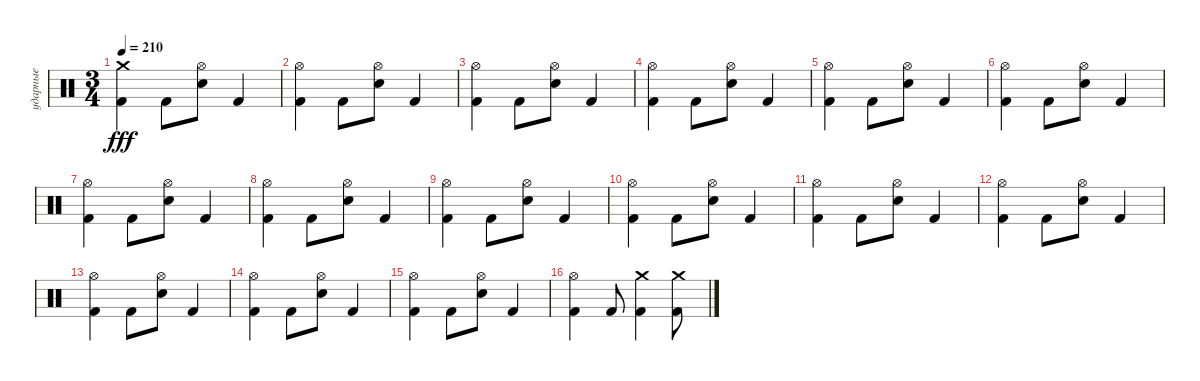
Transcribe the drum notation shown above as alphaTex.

\track ("ударные" "ударные") {instrument percussion}
\staff {score}
\articulation defaults
\ts (3 4)
\tempo 210
\clef neutral
\ks c
("Crash medium (hit)" "Kick (hit) 2").4{dy fff} "Kick (hit) 2".8 ("Hi-Hat (open)" "Snare (hit) 2").8 "Kick (hit) 2".4 |
("Hi-Hat (open)" "Kick (hit) 2").4 "Kick (hit) 2".8 ("Hi-Hat (open)" "Snare (hit) 2").8 "Kick (hit) 2".4 |
("Hi-Hat (open)" "Kick (hit) 2").4 "Kick (hit) 2".8 ("Hi-Hat (open)" "Snare (hit) 2").8 "Kick (hit) 2".4 |
("Hi-Hat (open)" "Kick (hit) 2").4 "Kick (hit) 2".8 ("Hi-Hat (open)" "Snare (hit) 2").8 "Kick (hit) 2".4 |
("Hi-Hat (open)" "Kick (hit) 2").4 "Kick (hit) 2".8 ("Hi-Hat (open)" "Snare (hit) 2").8 "Kick (hit) 2".4 |
("Hi-Hat (open)" "Kick (hit) 2").4 "Kick (hit) 2".8 ("Hi-Hat (open)" "Snare (hit) 2").8 "Kick (hit) 2".4 |
("Hi-Hat (open)" "Kick (hit) 2").4 "Kick (hit) 2".8 ("Hi-Hat (open)" "Snare (hit) 2").8 "Kick (hit) 2".4 |
("Hi-Hat (open)" "Kick (hit) 2").4 "Kick (hit) 2".8 ("Hi-Hat (open)" "Snare (hit) 2").8 "Kick (hit) 2".4 |
("Hi-Hat (open)" "Kick (hit) 2").4 "Kick (hit) 2".8 ("Hi-Hat (open)" "Snare (hit) 2").8 "Kick (hit) 2".4 |
("Hi-Hat (open)" "Kick (hit) 2").4 "Kick (hit) 2".8 ("Hi-Hat (open)" "Snare (hit) 2").8 "Kick (hit) 2".4 |
("Hi-Hat (open)" "Kick (hit) 2").4 "Kick (hit) 2".8 ("Hi-Hat (open)" "Snare (hit) 2").8 "Kick (hit) 2".4 |
("Hi-Hat (open)" "Kick (hit) 2").4 "Kick (hit) 2".8 ("Hi-Hat (open)" "Snare (hit) 2").8 "Kick (hit) 2".4 |
("Hi-Hat (open)" "Kick (hit) 2").4 "Kick (hit) 2".8 ("Hi-Hat (open)" "Snare (hit) 2").8 "Kick (hit) 2".4 |
("Hi-Hat (open)" "Kick (hit) 2").4 "Kick (hit) 2".8 ("Hi-Hat (open)" "Snare (hit) 2").8 "Kick (hit) 2".4 |
("Hi-Hat (open)" "Kick (hit) 2").4 "Kick (hit) 2".8 ("Hi-Hat (open)" "Snare (hit) 2").8 "Kick (hit) 2".4 |
("Hi-Hat (open)" "Kick (hit) 2").4 "Kick (hit) 2".8 ("Crash medium (hit)" "Kick (hit) 2").4 ("Crash medium (hit)" "Kick (hit) 2").8
